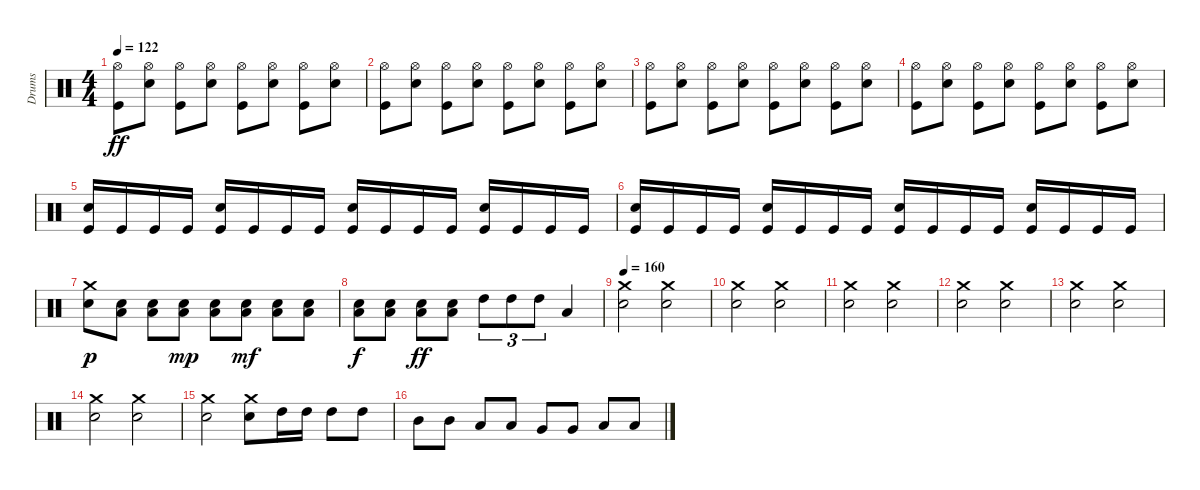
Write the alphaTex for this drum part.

\track ("Drums" "Drums") {instrument percussion}
\staff {score}
\articulation defaults
\ts (4 4)
\tempo 122
\clef neutral
\ks c
("Hi-Hat (open)" "Kick (hit)").8{dy ff} ("Hi-Hat (open)" "Electric Snare (hit)").8 ("Hi-Hat (open)" "Kick (hit)").8 ("Hi-Hat (open)" "Electric Snare (hit)").8 ("Hi-Hat (open)" "Kick (hit)").8 ("Hi-Hat (open)" "Electric Snare (hit)").8 ("Hi-Hat (open)" "Kick (hit)").8 ("Hi-Hat (open)" "Electric Snare (hit)").8 |
("Hi-Hat (open)" "Kick (hit)").8 ("Hi-Hat (open)" "Electric Snare (hit)").8 ("Hi-Hat (open)" "Kick (hit)").8 ("Hi-Hat (open)" "Electric Snare (hit)").8 ("Hi-Hat (open)" "Kick (hit)").8 ("Hi-Hat (open)" "Electric Snare (hit)").8 ("Hi-Hat (open)" "Kick (hit)").8 ("Hi-Hat (open)" "Electric Snare (hit)").8 |
("Hi-Hat (open)" "Kick (hit)").8 ("Hi-Hat (open)" "Electric Snare (hit)").8 ("Hi-Hat (open)" "Kick (hit)").8 ("Hi-Hat (open)" "Electric Snare (hit)").8 ("Hi-Hat (open)" "Kick (hit)").8 ("Hi-Hat (open)" "Electric Snare (hit)").8 ("Hi-Hat (open)" "Kick (hit)").8 ("Hi-Hat (open)" "Electric Snare (hit)").8 |
("Hi-Hat (open)" "Kick (hit)").8 ("Hi-Hat (open)" "Electric Snare (hit)").8 ("Hi-Hat (open)" "Kick (hit)").8 ("Hi-Hat (open)" "Electric Snare (hit)").8 ("Hi-Hat (open)" "Kick (hit)").8 ("Hi-Hat (open)" "Electric Snare (hit)").8 ("Hi-Hat (open)" "Kick (hit)").8 ("Hi-Hat (open)" "Electric Snare (hit)").8 |
("Electric Snare (hit)" "Kick (hit)").16 "Kick (hit)".16 "Kick (hit)".16 "Kick (hit)".16 ("Electric Snare (hit)" "Kick (hit)").16 "Kick (hit)".16 "Kick (hit)".16 "Kick (hit)".16 ("Electric Snare (hit)" "Kick (hit)").16 "Kick (hit)".16 "Kick (hit)".16 "Kick (hit)".16 ("Electric Snare (hit)" "Kick (hit)").16 "Kick (hit)".16 "Kick (hit)".16 "Kick (hit)".16 |
("Electric Snare (hit)" "Kick (hit)").16 "Kick (hit)".16 "Kick (hit)".16 "Kick (hit)".16 ("Electric Snare (hit)" "Kick (hit)").16 "Kick (hit)".16 "Kick (hit)".16 "Kick (hit)".16 ("Electric Snare (hit)" "Kick (hit)").16 "Kick (hit)".16 "Kick (hit)".16 "Kick (hit)".16 ("Electric Snare (hit)" "Kick (hit)").16 "Kick (hit)".16 "Kick (hit)".16 "Kick (hit)".16 |
("Crash medium (hit)" "Electric Snare (hit)").8{dy p} ("Low Floor Tom (hit)" "Electric Snare (hit)").8 ("Low Floor Tom (hit)" "Electric Snare (hit)").8 ("Low Floor Tom (hit)" "Electric Snare (hit)").8{dy mp} ("Low Floor Tom (hit)" "Electric Snare (hit)").8 ("Low Floor Tom (hit)" "Electric Snare (hit)").8{dy mf} ("Low Floor Tom (hit)" "Electric Snare (hit)").8 ("Low Floor Tom (hit)" "Electric Snare (hit)").8 |
("Low Floor Tom (hit)" "Electric Snare (hit)").8{dy f} ("Low Floor Tom (hit)" "Electric Snare (hit)").8 ("Low Floor Tom (hit)" "Electric Snare (hit)").8{dy ff} ("Low Floor Tom (hit)" "Electric Snare (hit)").8 "High Tom (hit)".8{tu (3 2)} "High Tom (hit)".8{tu (3 2)} "High Tom (hit)".8{tu (3 2)} "Low Tom (hit)".4 |
\tempo 160
("Crash medium (hit)" "Electric Snare (hit)").2 ("Crash medium (hit)" "Electric Snare (hit)").2 |
("Crash medium (hit)" "Electric Snare (hit)").2 ("Crash medium (hit)" "Electric Snare (hit)").2 |
("Crash medium (hit)" "Electric Snare (hit)").2 ("Crash medium (hit)" "Electric Snare (hit)").2 |
("Crash medium (hit)" "Electric Snare (hit)").2 ("Crash medium (hit)" "Electric Snare (hit)").2 |
("Crash medium (hit)" "Electric Snare (hit)").2 ("Crash medium (hit)" "Electric Snare (hit)").2 |
("Crash medium (hit)" "Electric Snare (hit)").2 ("Crash medium (hit)" "Electric Snare (hit)").2 |
("Crash medium (hit)" "Electric Snare (hit)").2 ("Crash medium (hit)" "Electric Snare (hit)").8 "High Tom (hit)".16 "High Tom (hit)".16 "High Tom (hit)".8 "High Tom (hit)".8 |
"Mid Tom (hit)".8 "Mid Tom (hit)".8 "Low Tom (hit)".8 "Low Tom (hit)".8 "Very Low Tom (hit)".8 "Very Low Tom (hit)".8 "Low Floor Tom (hit)".8 "Low Floor Tom (hit)".8
